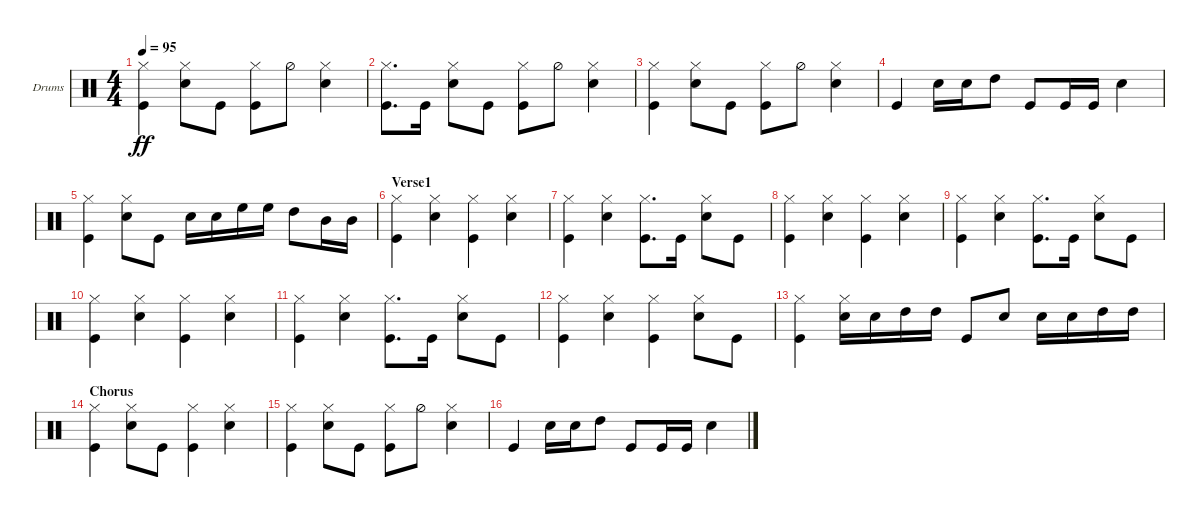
\defaultSystemsLayout 4
\bracketExtendMode groupsimilarinstruments
\firstSystemTrackNameOrientation horizontal
\otherSystemsTrackNameOrientation horizontal
\track ("Drums" "Drums") {instrument percussion}
\staff {score}
\articulation defaults
\ts (4 4)
\tempo 95
\clef neutral
\ks c
("Hi-Hat (closed)" "Kick (hit)").4{dy ff} ("Hi-Hat (closed)" "Snare (hit) 2").8 "Kick (hit)".8 ("Kick (hit)" "Hi-Hat (closed)").8 "Hi-Hat (half)".8 ("Hi-Hat (closed)" "Snare (hit) 2").4 |
("Hi-Hat (closed)" "Kick (hit)").8{d} "Kick (hit)".16 ("Hi-Hat (closed)" "Snare (hit) 2").8 "Kick (hit)".8 ("Kick (hit)" "Hi-Hat (closed)").8 "Hi-Hat (half)".8 ("Hi-Hat (closed)" "Snare (hit) 2").4 |
("Hi-Hat (closed)" "Kick (hit)").4 ("Hi-Hat (closed)" "Snare (hit) 2").8 "Kick (hit)".8 ("Kick (hit)" "Hi-Hat (closed)").8 "Hi-Hat (half)".8 ("Hi-Hat (closed)" "Snare (hit) 2").4 |
"Kick (hit)".4 "Snare (hit) 2".16 "Snare (hit) 2".16 "High Tom (hit)".8 "Kick (hit)".8 "Kick (hit)".16 "Kick (hit)".16 "Snare (hit) 2".4 |
("Hi-Hat (closed)" "Kick (hit)").4 ("Hi-Hat (closed)" "Snare (hit) 2").8 "Kick (hit)".8 "Snare (hit) 2".16 "Snare (hit) 2".16 "High Floor Tom (hit)".16 "High Floor Tom (hit)".16 "High Tom (hit)".8 "Mid Tom (hit)".16 "Mid Tom (hit)".16 |
\section ("" "Verse1")
("Hi-Hat (closed)" "Kick (hit)").4 ("Hi-Hat (closed)" "Snare (hit) 2").4 ("Kick (hit)" "Hi-Hat (closed)").4 ("Hi-Hat (closed)" "Snare (hit) 2").4 |
("Hi-Hat (closed)" "Kick (hit)").4 ("Hi-Hat (closed)" "Snare (hit) 2").4 ("Kick (hit)" "Hi-Hat (closed)").8{d} "Kick (hit)".16 ("Hi-Hat (closed)" "Snare (hit) 2").8 "Kick (hit)".8 |
("Hi-Hat (closed)" "Kick (hit)").4 ("Hi-Hat (closed)" "Snare (hit) 2").4 ("Kick (hit)" "Hi-Hat (closed)").4 ("Hi-Hat (closed)" "Snare (hit) 2").4 |
("Hi-Hat (closed)" "Kick (hit)").4 ("Hi-Hat (closed)" "Snare (hit) 2").4 ("Kick (hit)" "Hi-Hat (closed)").8{d} "Kick (hit)".16 ("Hi-Hat (closed)" "Snare (hit) 2").8 "Kick (hit)".8 |
("Hi-Hat (closed)" "Kick (hit)").4 ("Hi-Hat (closed)" "Snare (hit) 2").4 ("Kick (hit)" "Hi-Hat (closed)").4 ("Hi-Hat (closed)" "Snare (hit) 2").4 |
("Hi-Hat (closed)" "Kick (hit)").4 ("Hi-Hat (closed)" "Snare (hit) 2").4 ("Kick (hit)" "Hi-Hat (closed)").8{d} "Kick (hit)".16 ("Hi-Hat (closed)" "Snare (hit) 2").8 "Kick (hit)".8 |
("Hi-Hat (closed)" "Kick (hit)").4 ("Hi-Hat (closed)" "Snare (hit) 2").4 ("Kick (hit)" "Hi-Hat (closed)").4 ("Hi-Hat (closed)" "Snare (hit) 2").8 "Kick (hit)".8 |
("Hi-Hat (closed)" "Kick (hit)").4 ("Hi-Hat (closed)" "Snare (hit) 2").16 "Snare (hit) 2".16 "High Tom (hit)".16 "High Tom (hit)".16 "Kick (hit)".8 "Snare (hit) 2".8 "Snare (hit) 2".16 "Snare (hit) 2".16 "High Tom (hit)".16 "High Tom (hit)".16 |
\section ("" "Chorus")
("Hi-Hat (closed)" "Kick (hit)").4 ("Hi-Hat (closed)" "Snare (hit) 2").8 "Kick (hit)".8 ("Kick (hit)" "Hi-Hat (closed)").4 ("Hi-Hat (closed)" "Snare (hit) 2").4 |
("Hi-Hat (closed)" "Kick (hit)").4 ("Hi-Hat (closed)" "Snare (hit) 2").8 "Kick (hit)".8 ("Kick (hit)" "Hi-Hat (closed)").8 "Hi-Hat (half)".8 ("Hi-Hat (closed)" "Snare (hit) 2").4 |
"Kick (hit)".4 "Snare (hit) 2".16 "Snare (hit) 2".16 "High Tom (hit)".8 "Kick (hit)".8 "Kick (hit)".16 "Kick (hit)".16 "Snare (hit) 2".4
